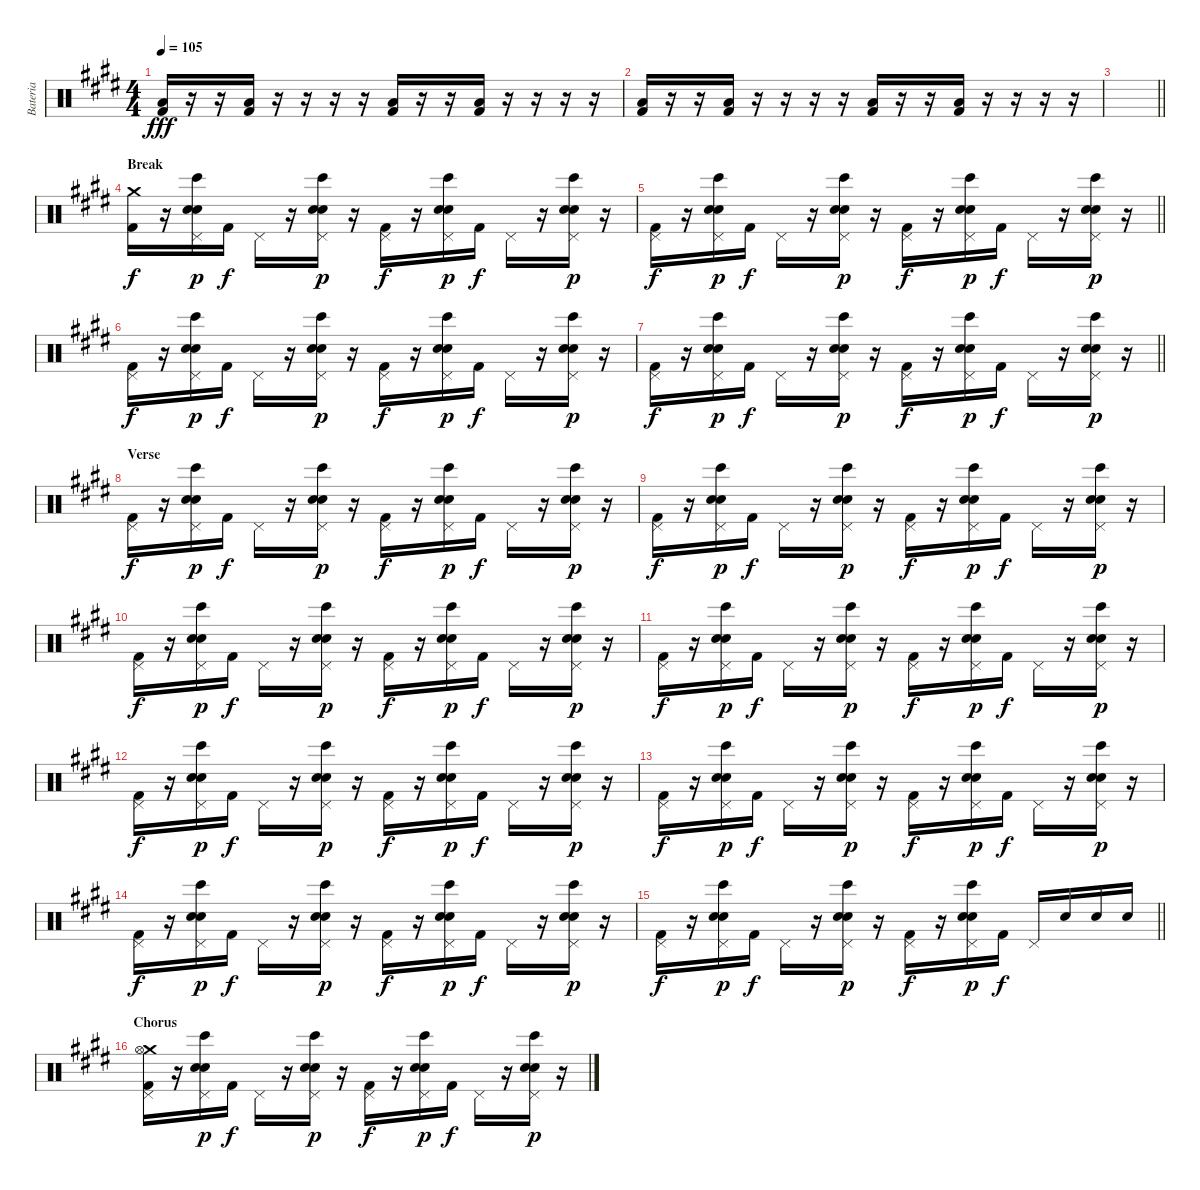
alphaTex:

\track ("Bateria" "Bateria") {instrument percussion}
\staff {score}
\articulation defaults
\ts (4 4)
\tempo 105
\clef neutral
\ks c#minor
("Low Floor Tom (hit)" "Kick (hit) 2").16{dy fff} r.16 r.16 ("Low Floor Tom (hit)" "Kick (hit) 2").16 r.16 r.16 r.16 r.16 ("Low Floor Tom (hit)" "Kick (hit) 2").16 r.16 r.16 ("Low Floor Tom (hit)" "Kick (hit) 2").16 r.16 r.16 r.16 r.16 |
("Low Floor Tom (hit)" "Kick (hit) 2").16 r.16 r.16 ("Low Floor Tom (hit)" "Kick (hit) 2").16 r.16 r.16 r.16 r.16 ("Low Floor Tom (hit)" "Kick (hit) 2").16 r.16 r.16 ("Low Floor Tom (hit)" "Kick (hit) 2").16 r.16 r.16 r.16 r.16 |
\barLineRight lightlight
|
\section ("" "Break")
("Crash medium (hit)" "Kick (hit) 2").16{dy f} r.16 ("Bongo High (hit)" "Pedal Hi-Hat (hit)" "Electric Snare (hit)" "Snare (hit) 2").16{dy p} "Kick (hit) 2".16{dy f} "Pedal Hi-Hat (hit)".16 r.16 ("Bongo High (hit)" "Pedal Hi-Hat (hit)" "Electric Snare (hit)" "Snare (hit) 2").16{dy p} r.16 ("Pedal Hi-Hat (hit)" "Kick (hit) 2").16{dy f} r.16 ("Bongo High (hit)" "Pedal Hi-Hat (hit)" "Electric Snare (hit)" "Snare (hit) 2").16{dy p} "Kick (hit) 2".16{dy f} "Pedal Hi-Hat (hit)".16 r.16 ("Bongo High (hit)" "Pedal Hi-Hat (hit)" "Electric Snare (hit)" "Snare (hit) 2").16{dy p} r.16 |
\barLineRight lightlight
("Pedal Hi-Hat (hit)" "Kick (hit) 2").16{dy f} r.16 ("Bongo High (hit)" "Pedal Hi-Hat (hit)" "Electric Snare (hit)" "Snare (hit) 2").16{dy p} "Kick (hit) 2".16{dy f} "Pedal Hi-Hat (hit)".16 r.16 ("Bongo High (hit)" "Pedal Hi-Hat (hit)" "Electric Snare (hit)" "Snare (hit) 2").16{dy p} r.16 ("Pedal Hi-Hat (hit)" "Kick (hit) 2").16{dy f} r.16 ("Bongo High (hit)" "Pedal Hi-Hat (hit)" "Electric Snare (hit)" "Snare (hit) 2").16{dy p} "Kick (hit) 2".16{dy f} "Pedal Hi-Hat (hit)".16 r.16 ("Bongo High (hit)" "Pedal Hi-Hat (hit)" "Electric Snare (hit)" "Snare (hit) 2").16{dy p} r.16 |
("Pedal Hi-Hat (hit)" "Kick (hit) 2").16{dy f} r.16 ("Bongo High (hit)" "Pedal Hi-Hat (hit)" "Electric Snare (hit)" "Snare (hit) 2").16{dy p} "Kick (hit) 2".16{dy f} "Pedal Hi-Hat (hit)".16 r.16 ("Bongo High (hit)" "Pedal Hi-Hat (hit)" "Electric Snare (hit)" "Snare (hit) 2").16{dy p} r.16 ("Pedal Hi-Hat (hit)" "Kick (hit) 2").16{dy f} r.16 ("Bongo High (hit)" "Pedal Hi-Hat (hit)" "Electric Snare (hit)" "Snare (hit) 2").16{dy p} "Kick (hit) 2".16{dy f} "Pedal Hi-Hat (hit)".16 r.16 ("Bongo High (hit)" "Pedal Hi-Hat (hit)" "Electric Snare (hit)" "Snare (hit) 2").16{dy p} r.16 |
\barLineRight lightlight
("Pedal Hi-Hat (hit)" "Kick (hit) 2").16{dy f} r.16 ("Bongo High (hit)" "Pedal Hi-Hat (hit)" "Electric Snare (hit)" "Snare (hit) 2").16{dy p} "Kick (hit) 2".16{dy f} "Pedal Hi-Hat (hit)".16 r.16 ("Bongo High (hit)" "Pedal Hi-Hat (hit)" "Electric Snare (hit)" "Snare (hit) 2").16{dy p} r.16 ("Pedal Hi-Hat (hit)" "Kick (hit) 2").16{dy f} r.16 ("Bongo High (hit)" "Pedal Hi-Hat (hit)" "Electric Snare (hit)" "Snare (hit) 2").16{dy p} "Kick (hit) 2".16{dy f} "Pedal Hi-Hat (hit)".16 r.16 ("Bongo High (hit)" "Pedal Hi-Hat (hit)" "Electric Snare (hit)" "Snare (hit) 2").16{dy p} r.16 |
\section ("" "Verse")
("Pedal Hi-Hat (hit)" "Kick (hit) 2").16{dy f} r.16 ("Bongo High (hit)" "Pedal Hi-Hat (hit)" "Electric Snare (hit)" "Snare (hit) 2").16{dy p} "Kick (hit) 2".16{dy f} "Pedal Hi-Hat (hit)".16 r.16 ("Bongo High (hit)" "Pedal Hi-Hat (hit)" "Electric Snare (hit)" "Snare (hit) 2").16{dy p} r.16 ("Pedal Hi-Hat (hit)" "Kick (hit) 2").16{dy f} r.16 ("Bongo High (hit)" "Pedal Hi-Hat (hit)" "Electric Snare (hit)" "Snare (hit) 2").16{dy p} "Kick (hit) 2".16{dy f} "Pedal Hi-Hat (hit)".16 r.16 ("Bongo High (hit)" "Pedal Hi-Hat (hit)" "Electric Snare (hit)" "Snare (hit) 2").16{dy p} r.16 |
("Pedal Hi-Hat (hit)" "Kick (hit) 2").16{dy f} r.16 ("Bongo High (hit)" "Pedal Hi-Hat (hit)" "Electric Snare (hit)" "Snare (hit) 2").16{dy p} "Kick (hit) 2".16{dy f} "Pedal Hi-Hat (hit)".16 r.16 ("Bongo High (hit)" "Pedal Hi-Hat (hit)" "Electric Snare (hit)" "Snare (hit) 2").16{dy p} r.16 ("Pedal Hi-Hat (hit)" "Kick (hit) 2").16{dy f} r.16 ("Bongo High (hit)" "Pedal Hi-Hat (hit)" "Electric Snare (hit)" "Snare (hit) 2").16{dy p} "Kick (hit) 2".16{dy f} "Pedal Hi-Hat (hit)".16 r.16 ("Bongo High (hit)" "Pedal Hi-Hat (hit)" "Electric Snare (hit)" "Snare (hit) 2").16{dy p} r.16 |
("Pedal Hi-Hat (hit)" "Kick (hit) 2").16{dy f} r.16 ("Bongo High (hit)" "Pedal Hi-Hat (hit)" "Electric Snare (hit)" "Snare (hit) 2").16{dy p} "Kick (hit) 2".16{dy f} "Pedal Hi-Hat (hit)".16 r.16 ("Bongo High (hit)" "Pedal Hi-Hat (hit)" "Electric Snare (hit)" "Snare (hit) 2").16{dy p} r.16 ("Pedal Hi-Hat (hit)" "Kick (hit) 2").16{dy f} r.16 ("Bongo High (hit)" "Pedal Hi-Hat (hit)" "Electric Snare (hit)" "Snare (hit) 2").16{dy p} "Kick (hit) 2".16{dy f} "Pedal Hi-Hat (hit)".16 r.16 ("Bongo High (hit)" "Pedal Hi-Hat (hit)" "Electric Snare (hit)" "Snare (hit) 2").16{dy p} r.16 |
("Pedal Hi-Hat (hit)" "Kick (hit) 2").16{dy f} r.16 ("Bongo High (hit)" "Pedal Hi-Hat (hit)" "Electric Snare (hit)" "Snare (hit) 2").16{dy p} "Kick (hit) 2".16{dy f} "Pedal Hi-Hat (hit)".16 r.16 ("Bongo High (hit)" "Pedal Hi-Hat (hit)" "Electric Snare (hit)" "Snare (hit) 2").16{dy p} r.16 ("Pedal Hi-Hat (hit)" "Kick (hit) 2").16{dy f} r.16 ("Bongo High (hit)" "Pedal Hi-Hat (hit)" "Electric Snare (hit)" "Snare (hit) 2").16{dy p} "Kick (hit) 2".16{dy f} "Pedal Hi-Hat (hit)".16 r.16 ("Bongo High (hit)" "Pedal Hi-Hat (hit)" "Electric Snare (hit)" "Snare (hit) 2").16{dy p} r.16 |
("Pedal Hi-Hat (hit)" "Kick (hit) 2").16{dy f} r.16 ("Bongo High (hit)" "Pedal Hi-Hat (hit)" "Electric Snare (hit)" "Snare (hit) 2").16{dy p} "Kick (hit) 2".16{dy f} "Pedal Hi-Hat (hit)".16 r.16 ("Bongo High (hit)" "Pedal Hi-Hat (hit)" "Electric Snare (hit)" "Snare (hit) 2").16{dy p} r.16 ("Pedal Hi-Hat (hit)" "Kick (hit) 2").16{dy f} r.16 ("Bongo High (hit)" "Pedal Hi-Hat (hit)" "Electric Snare (hit)" "Snare (hit) 2").16{dy p} "Kick (hit) 2".16{dy f} "Pedal Hi-Hat (hit)".16 r.16 ("Bongo High (hit)" "Pedal Hi-Hat (hit)" "Electric Snare (hit)" "Snare (hit) 2").16{dy p} r.16 |
("Pedal Hi-Hat (hit)" "Kick (hit) 2").16{dy f} r.16 ("Bongo High (hit)" "Pedal Hi-Hat (hit)" "Electric Snare (hit)" "Snare (hit) 2").16{dy p} "Kick (hit) 2".16{dy f} "Pedal Hi-Hat (hit)".16 r.16 ("Bongo High (hit)" "Pedal Hi-Hat (hit)" "Electric Snare (hit)" "Snare (hit) 2").16{dy p} r.16 ("Pedal Hi-Hat (hit)" "Kick (hit) 2").16{dy f} r.16 ("Bongo High (hit)" "Pedal Hi-Hat (hit)" "Electric Snare (hit)" "Snare (hit) 2").16{dy p} "Kick (hit) 2".16{dy f} "Pedal Hi-Hat (hit)".16 r.16 ("Bongo High (hit)" "Pedal Hi-Hat (hit)" "Electric Snare (hit)" "Snare (hit) 2").16{dy p} r.16 |
("Pedal Hi-Hat (hit)" "Kick (hit) 2").16{dy f} r.16 ("Bongo High (hit)" "Pedal Hi-Hat (hit)" "Electric Snare (hit)" "Snare (hit) 2").16{dy p} "Kick (hit) 2".16{dy f} "Pedal Hi-Hat (hit)".16 r.16 ("Bongo High (hit)" "Pedal Hi-Hat (hit)" "Electric Snare (hit)" "Snare (hit) 2").16{dy p} r.16 ("Pedal Hi-Hat (hit)" "Kick (hit) 2").16{dy f} r.16 ("Bongo High (hit)" "Pedal Hi-Hat (hit)" "Electric Snare (hit)" "Snare (hit) 2").16{dy p} "Kick (hit) 2".16{dy f} "Pedal Hi-Hat (hit)".16 r.16 ("Bongo High (hit)" "Pedal Hi-Hat (hit)" "Electric Snare (hit)" "Snare (hit) 2").16{dy p} r.16 |
\barLineRight lightlight
("Pedal Hi-Hat (hit)" "Kick (hit) 2").16{dy f} r.16 ("Bongo High (hit)" "Pedal Hi-Hat (hit)" "Electric Snare (hit)" "Snare (hit) 2").16{dy p} "Kick (hit) 2".16{dy f} "Pedal Hi-Hat (hit)".16 r.16 ("Bongo High (hit)" "Pedal Hi-Hat (hit)" "Electric Snare (hit)" "Snare (hit) 2").16{dy p} r.16 ("Pedal Hi-Hat (hit)" "Kick (hit) 2").16{dy f} r.16 ("Bongo High (hit)" "Pedal Hi-Hat (hit)" "Electric Snare (hit)" "Snare (hit) 2").16{dy p} "Kick (hit) 2".16{dy f} "Pedal Hi-Hat (hit)".16 "Electric Snare (hit)".16 "Electric Snare (hit)".16 "Electric Snare (hit)".16 |
\section ("" "Chorus")
("Crash medium (hit)" "Hi-Hat (open)" "Pedal Hi-Hat (hit)" "Kick (hit) 2").16 r.16 ("Bongo High (hit)" "Pedal Hi-Hat (hit)" "Electric Snare (hit)" "Snare (hit) 2").16{dy p} "Kick (hit) 2".16{dy f} "Pedal Hi-Hat (hit)".16 r.16 ("Bongo High (hit)" "Pedal Hi-Hat (hit)" "Electric Snare (hit)" "Snare (hit) 2").16{dy p} r.16 ("Pedal Hi-Hat (hit)" "Kick (hit) 2").16{dy f} r.16 ("Bongo High (hit)" "Pedal Hi-Hat (hit)" "Electric Snare (hit)" "Snare (hit) 2").16{dy p} "Kick (hit) 2".16{dy f} "Pedal Hi-Hat (hit)".16 r.16 ("Bongo High (hit)" "Pedal Hi-Hat (hit)" "Electric Snare (hit)" "Snare (hit) 2").16{dy p} r.16
